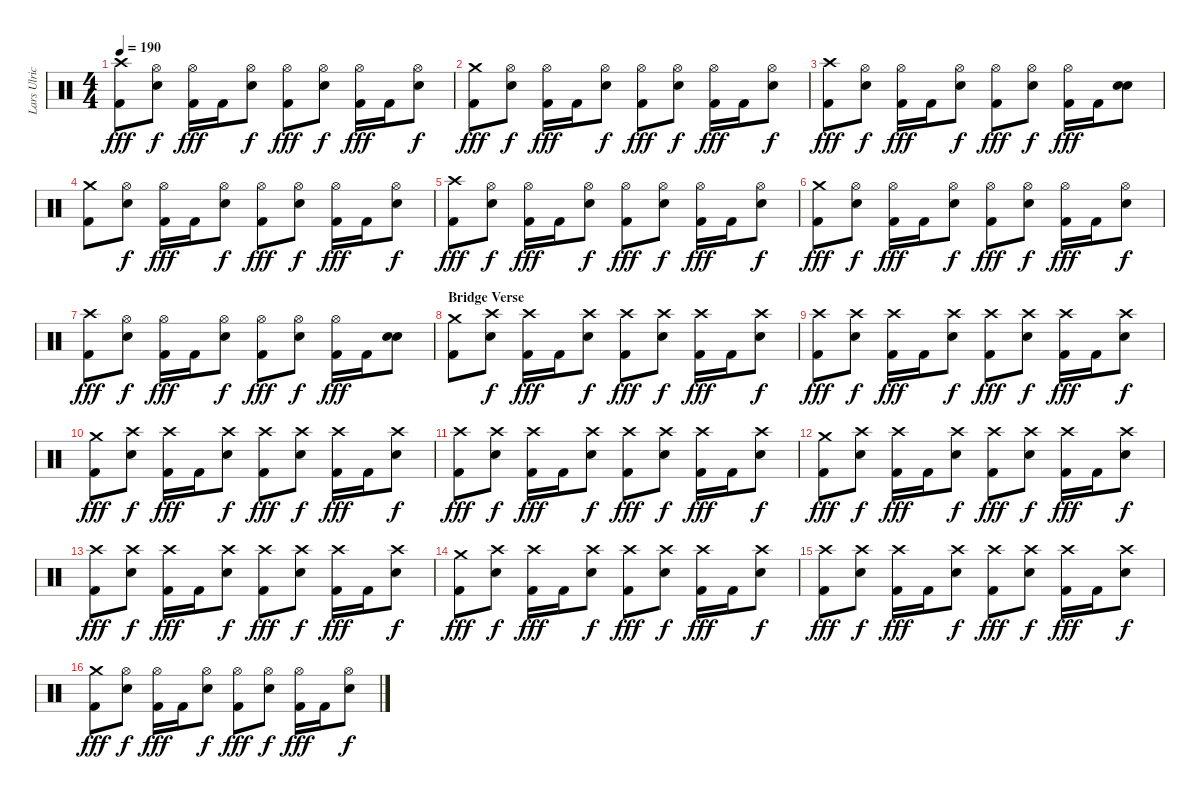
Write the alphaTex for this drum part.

\track ("Lars Ulrich" "Lars Ulric") {instrument percussion}
\staff {score}
\articulation defaults
\ts (4 4)
\tempo 190
\clef neutral
\ks c
("Crash high (hit)" "Kick (hit) 2").8{dy fff} ("Hi-Hat (open)" "Electric Snare (hit)").8{dy f} ("Hi-Hat (open)" "Kick (hit) 2").16{dy fff} "Kick (hit) 2".16 ("Hi-Hat (open)" "Electric Snare (hit)").8{dy f} ("Hi-Hat (open)" "Kick (hit) 2").8{dy fff} ("Hi-Hat (open)" "Electric Snare (hit)").8{dy f} ("Hi-Hat (open)" "Kick (hit) 2").16{dy fff} "Kick (hit) 2".16 ("Hi-Hat (open)" "Electric Snare (hit)").8{dy f} |
("Crash medium (hit)" "Kick (hit) 2").8{dy fff} ("Hi-Hat (open)" "Electric Snare (hit)").8{dy f} ("Hi-Hat (open)" "Kick (hit) 2").16{dy fff} "Kick (hit) 2".16 ("Hi-Hat (open)" "Electric Snare (hit)").8{dy f} ("Hi-Hat (open)" "Kick (hit) 2").8{dy fff} ("Hi-Hat (open)" "Electric Snare (hit)").8{dy f} ("Hi-Hat (open)" "Kick (hit) 2").16{dy fff} "Kick (hit) 2".16 ("Hi-Hat (open)" "Electric Snare (hit)").8{dy f} |
("Crash high (hit)" "Kick (hit) 2").8{dy fff} ("Hi-Hat (open)" "Electric Snare (hit)").8{dy f} ("Hi-Hat (open)" "Kick (hit) 2").16{dy fff} "Kick (hit) 2".16 ("Hi-Hat (open)" "Electric Snare (hit)").8{dy f} ("Hi-Hat (open)" "Kick (hit) 2").8{dy fff} ("Hi-Hat (open)" "Electric Snare (hit)").8{dy f} ("Hi-Hat (open)" "Kick (hit) 2").16{dy fff} "Kick (hit) 2".16 ("Electric Snare (hit)" "Electric Snare (hit)").8{bu 120} |
("Crash medium (hit)" "Kick (hit) 2").8 ("Hi-Hat (open)" "Electric Snare (hit)").8{dy f} ("Hi-Hat (open)" "Kick (hit) 2").16{dy fff} "Kick (hit) 2".16 ("Hi-Hat (open)" "Electric Snare (hit)").8{dy f} ("Hi-Hat (open)" "Kick (hit) 2").8{dy fff} ("Hi-Hat (open)" "Electric Snare (hit)").8{dy f} ("Hi-Hat (open)" "Kick (hit) 2").16{dy fff} "Kick (hit) 2".16 ("Hi-Hat (open)" "Electric Snare (hit)").8{dy f} |
("Crash high (hit)" "Kick (hit) 2").8{dy fff} ("Hi-Hat (open)" "Electric Snare (hit)").8{dy f} ("Hi-Hat (open)" "Kick (hit) 2").16{dy fff} "Kick (hit) 2".16 ("Hi-Hat (open)" "Electric Snare (hit)").8{dy f} ("Hi-Hat (open)" "Kick (hit) 2").8{dy fff} ("Hi-Hat (open)" "Electric Snare (hit)").8{dy f} ("Hi-Hat (open)" "Kick (hit) 2").16{dy fff} "Kick (hit) 2".16 ("Hi-Hat (open)" "Electric Snare (hit)").8{dy f} |
("Crash medium (hit)" "Kick (hit) 2").8{dy fff} ("Hi-Hat (open)" "Electric Snare (hit)").8{dy f} ("Hi-Hat (open)" "Kick (hit) 2").16{dy fff} "Kick (hit) 2".16 ("Hi-Hat (open)" "Electric Snare (hit)").8{dy f} ("Hi-Hat (open)" "Kick (hit) 2").8{dy fff} ("Hi-Hat (open)" "Electric Snare (hit)").8{dy f} ("Hi-Hat (open)" "Kick (hit) 2").16{dy fff} "Kick (hit) 2".16 ("Hi-Hat (open)" "Electric Snare (hit)").8{dy f} |
("Crash high (hit)" "Kick (hit) 2").8{dy fff} ("Hi-Hat (open)" "Electric Snare (hit)").8{dy f} ("Hi-Hat (open)" "Kick (hit) 2").16{dy fff} "Kick (hit) 2".16 ("Hi-Hat (open)" "Electric Snare (hit)").8{dy f} ("Hi-Hat (open)" "Kick (hit) 2").8{dy fff} ("Hi-Hat (open)" "Electric Snare (hit)").8{dy f} ("Hi-Hat (open)" "Kick (hit) 2").16{dy fff} "Kick (hit) 2".16 ("Electric Snare (hit)" "Electric Snare (hit)").8{bu 120} |
\section ("" "Bridge Verse")
("Crash medium (hit)" "Kick (hit) 2").8 ("Crash high (hit)" "Electric Snare (hit)").8{dy f} ("Crash high (hit)" "Kick (hit) 2").16{dy fff} "Kick (hit) 2".16 ("Crash high (hit)" "Electric Snare (hit)").8{dy f} ("Crash high (hit)" "Kick (hit) 2").8{dy fff} ("Crash high (hit)" "Electric Snare (hit)").8{dy f} ("Crash high (hit)" "Kick (hit) 2").16{dy fff} "Kick (hit) 2".16 ("Crash high (hit)" "Electric Snare (hit)").8{dy f} |
("Crash high (hit)" "Kick (hit) 2").8{dy fff} ("Crash high (hit)" "Electric Snare (hit)").8{dy f} ("Crash high (hit)" "Kick (hit) 2").16{dy fff} "Kick (hit) 2".16 ("Crash high (hit)" "Electric Snare (hit)").8{dy f} ("Crash high (hit)" "Kick (hit) 2").8{dy fff} ("Crash high (hit)" "Electric Snare (hit)").8{dy f} ("Crash high (hit)" "Kick (hit) 2").16{dy fff} "Kick (hit) 2".16 ("Crash high (hit)" "Electric Snare (hit)").8{dy f} |
("Crash medium (hit)" "Kick (hit) 2").8{dy fff} ("Crash high (hit)" "Electric Snare (hit)").8{dy f} ("Crash high (hit)" "Kick (hit) 2").16{dy fff} "Kick (hit) 2".16 ("Crash high (hit)" "Electric Snare (hit)").8{dy f} ("Crash high (hit)" "Kick (hit) 2").8{dy fff} ("Crash high (hit)" "Electric Snare (hit)").8{dy f} ("Crash high (hit)" "Kick (hit) 2").16{dy fff} "Kick (hit) 2".16 ("Crash high (hit)" "Electric Snare (hit)").8{dy f} |
("Crash high (hit)" "Kick (hit) 2").8{dy fff} ("Crash high (hit)" "Electric Snare (hit)").8{dy f} ("Crash high (hit)" "Kick (hit) 2").16{dy fff} "Kick (hit) 2".16 ("Crash high (hit)" "Electric Snare (hit)").8{dy f} ("Crash high (hit)" "Kick (hit) 2").8{dy fff} ("Crash high (hit)" "Electric Snare (hit)").8{dy f} ("Crash high (hit)" "Kick (hit) 2").16{dy fff} "Kick (hit) 2".16 ("Crash high (hit)" "Electric Snare (hit)").8{dy f} |
("Crash medium (hit)" "Kick (hit) 2").8{dy fff} ("Crash high (hit)" "Electric Snare (hit)").8{dy f} ("Crash high (hit)" "Kick (hit) 2").16{dy fff} "Kick (hit) 2".16 ("Crash high (hit)" "Electric Snare (hit)").8{dy f} ("Crash high (hit)" "Kick (hit) 2").8{dy fff} ("Crash high (hit)" "Electric Snare (hit)").8{dy f} ("Crash high (hit)" "Kick (hit) 2").16{dy fff} "Kick (hit) 2".16 ("Crash high (hit)" "Electric Snare (hit)").8{dy f} |
("Crash high (hit)" "Kick (hit) 2").8{dy fff} ("Crash high (hit)" "Electric Snare (hit)").8{dy f} ("Crash high (hit)" "Kick (hit) 2").16{dy fff} "Kick (hit) 2".16 ("Crash high (hit)" "Electric Snare (hit)").8{dy f} ("Crash high (hit)" "Kick (hit) 2").8{dy fff} ("Crash high (hit)" "Electric Snare (hit)").8{dy f} ("Crash high (hit)" "Kick (hit) 2").16{dy fff} "Kick (hit) 2".16 ("Crash high (hit)" "Electric Snare (hit)").8{dy f} |
("Crash medium (hit)" "Kick (hit) 2").8{dy fff} ("Crash high (hit)" "Electric Snare (hit)").8{dy f} ("Crash high (hit)" "Kick (hit) 2").16{dy fff} "Kick (hit) 2".16 ("Crash high (hit)" "Electric Snare (hit)").8{dy f} ("Crash high (hit)" "Kick (hit) 2").8{dy fff} ("Crash high (hit)" "Electric Snare (hit)").8{dy f} ("Crash high (hit)" "Kick (hit) 2").16{dy fff} "Kick (hit) 2".16 ("Crash high (hit)" "Electric Snare (hit)").8{dy f} |
("Crash high (hit)" "Kick (hit) 2").8{dy fff} ("Crash high (hit)" "Electric Snare (hit)").8{dy f} ("Crash high (hit)" "Kick (hit) 2").16{dy fff} "Kick (hit) 2".16 ("Crash high (hit)" "Electric Snare (hit)").8{dy f} ("Crash high (hit)" "Kick (hit) 2").8{dy fff} ("Crash high (hit)" "Electric Snare (hit)").8{dy f} ("Crash high (hit)" "Kick (hit) 2").16{dy fff} "Kick (hit) 2".16 ("Crash high (hit)" "Electric Snare (hit)").8{dy f} |
("Crash medium (hit)" "Kick (hit) 2").8{dy fff} ("Hi-Hat (open)" "Electric Snare (hit)").8{dy f} ("Hi-Hat (open)" "Kick (hit) 2").16{dy fff} "Kick (hit) 2".16 ("Hi-Hat (open)" "Electric Snare (hit)").8{dy f} ("Hi-Hat (open)" "Kick (hit) 2").8{dy fff} ("Hi-Hat (open)" "Electric Snare (hit)").8{dy f} ("Hi-Hat (open)" "Kick (hit) 2").16{dy fff} "Kick (hit) 2".16 ("Hi-Hat (open)" "Electric Snare (hit)").8{dy f}
